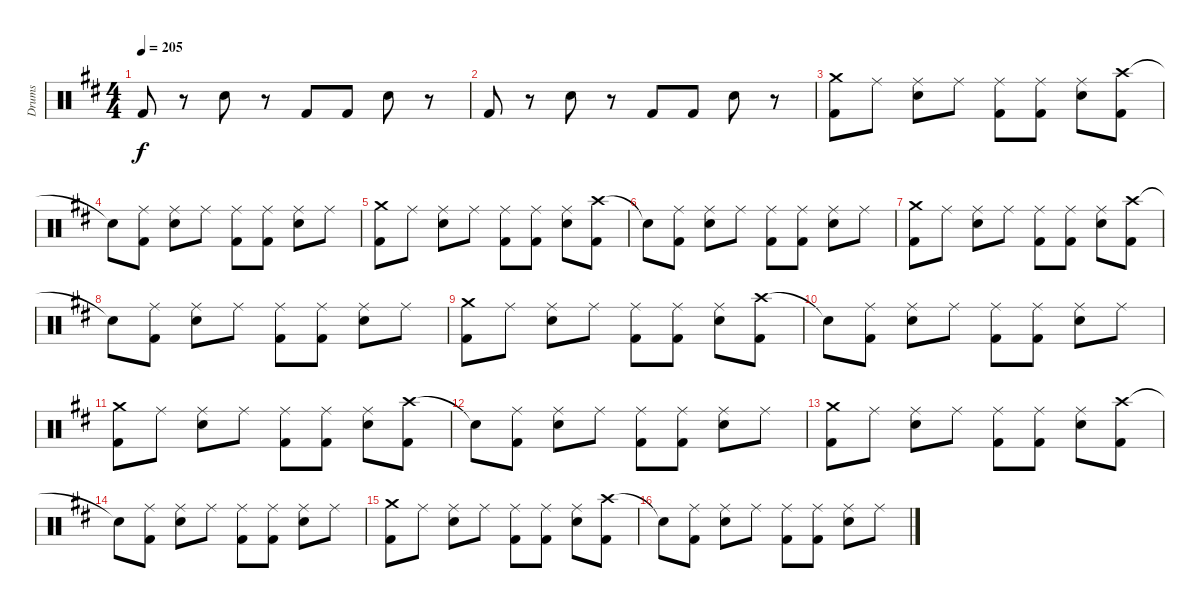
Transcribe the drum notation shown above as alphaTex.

\track ("Drums" "Drums") {instrument percussion}
\staff {score}
\articulation defaults
\ts (4 4)
\tempo 205
\clef neutral
\ks d "Kick (hit) 2".8{dy f}
r.8 "Snare (hit) 2".8 r.8 "Kick (hit) 2".8 "Kick (hit) 2".8 "Snare (hit) 2".8 r.8 |
"Kick (hit) 2".8 r.8 "Snare (hit) 2".8 r.8 "Kick (hit) 2".8 "Kick (hit) 2".8 "Snare (hit) 2".8 r.8 |
("Crash medium (hit)" "Kick (hit) 2").8 "Ride (middle)".8 ("Ride (middle)" "Snare (hit) 2").8 "Ride (middle)".8 ("Ride (middle)" "Kick (hit) 2").8 ("Ride (middle)" "Kick (hit) 2").8 ("Ride (middle)" "Snare (hit) 2").8 ("Crash high (hit)" "Kick (hit) 2").8 |
"Snare (hit)"{t}.8 ("Ride (middle)" "Kick (hit) 2").8 ("Ride (middle)" "Snare (hit) 2").8 "Ride (middle)".8 ("Ride (middle)" "Kick (hit) 2").8 ("Ride (middle)" "Kick (hit) 2").8 ("Ride (middle)" "Snare (hit) 2").8 "Ride (middle)".8 |
("Crash medium (hit)" "Kick (hit) 2").8 "Ride (middle)".8 ("Ride (middle)" "Snare (hit) 2").8 "Ride (middle)".8 ("Ride (middle)" "Kick (hit) 2").8 ("Ride (middle)" "Kick (hit) 2").8 ("Ride (middle)" "Snare (hit) 2").8 ("Crash high (hit)" "Kick (hit) 2").8 |
"Snare (hit)"{t}.8 ("Ride (middle)" "Kick (hit) 2").8 ("Ride (middle)" "Snare (hit) 2").8 "Ride (middle)".8 ("Ride (middle)" "Kick (hit) 2").8 ("Ride (middle)" "Kick (hit) 2").8 ("Ride (middle)" "Snare (hit) 2").8 "Ride (middle)".8 |
("Crash medium (hit)" "Kick (hit) 2").8 "Ride (middle)".8 ("Ride (middle)" "Snare (hit) 2").8 "Ride (middle)".8 ("Ride (middle)" "Kick (hit) 2").8 ("Ride (middle)" "Kick (hit) 2").8 ("Ride (middle)" "Snare (hit) 2").8 ("Crash high (hit)" "Kick (hit) 2").8 |
"Snare (hit)"{t}.8 ("Ride (middle)" "Kick (hit) 2").8 ("Ride (middle)" "Snare (hit) 2").8 "Ride (middle)".8 ("Ride (middle)" "Kick (hit) 2").8 ("Ride (middle)" "Kick (hit) 2").8 ("Ride (middle)" "Snare (hit) 2").8 "Ride (middle)".8 |
("Crash medium (hit)" "Kick (hit) 2").8 "Ride (middle)".8 ("Ride (middle)" "Snare (hit) 2").8 "Ride (middle)".8 ("Ride (middle)" "Kick (hit) 2").8 ("Ride (middle)" "Kick (hit) 2").8 ("Ride (middle)" "Snare (hit) 2").8 ("Crash high (hit)" "Kick (hit) 2").8 |
"Snare (hit)"{t}.8 ("Ride (middle)" "Kick (hit) 2").8 ("Ride (middle)" "Snare (hit) 2").8 "Ride (middle)".8 ("Ride (middle)" "Kick (hit) 2").8 ("Ride (middle)" "Kick (hit) 2").8 ("Ride (middle)" "Snare (hit) 2").8 "Ride (middle)".8 |
("Crash medium (hit)" "Kick (hit) 2").8 "Ride (middle)".8 ("Ride (middle)" "Snare (hit) 2").8 "Ride (middle)".8 ("Ride (middle)" "Kick (hit) 2").8 ("Ride (middle)" "Kick (hit) 2").8 ("Ride (middle)" "Snare (hit) 2").8 ("Crash high (hit)" "Kick (hit) 2").8 |
"Snare (hit)"{t}.8 ("Ride (middle)" "Kick (hit) 2").8 ("Ride (middle)" "Snare (hit) 2").8 "Ride (middle)".8 ("Ride (middle)" "Kick (hit) 2").8 ("Ride (middle)" "Kick (hit) 2").8 ("Ride (middle)" "Snare (hit) 2").8 "Ride (middle)".8 |
("Crash medium (hit)" "Kick (hit) 2").8 "Ride (middle)".8 ("Ride (middle)" "Snare (hit) 2").8 "Ride (middle)".8 ("Ride (middle)" "Kick (hit) 2").8 ("Ride (middle)" "Kick (hit) 2").8 ("Ride (middle)" "Snare (hit) 2").8 ("Crash high (hit)" "Kick (hit) 2").8 |
"Snare (hit)"{t}.8 ("Ride (middle)" "Kick (hit) 2").8 ("Ride (middle)" "Snare (hit) 2").8 "Ride (middle)".8 ("Ride (middle)" "Kick (hit) 2").8 ("Ride (middle)" "Kick (hit) 2").8 ("Ride (middle)" "Snare (hit) 2").8 "Ride (middle)".8 |
("Crash medium (hit)" "Kick (hit) 2").8 "Ride (middle)".8 ("Ride (middle)" "Snare (hit) 2").8 "Ride (middle)".8 ("Ride (middle)" "Kick (hit) 2").8 ("Ride (middle)" "Kick (hit) 2").8 ("Ride (middle)" "Snare (hit) 2").8 ("Crash high (hit)" "Kick (hit) 2").8 |
"Snare (hit)"{t}.8 ("Ride (middle)" "Kick (hit) 2").8 ("Ride (middle)" "Snare (hit) 2").8 "Ride (middle)".8 ("Ride (middle)" "Kick (hit) 2").8 ("Ride (middle)" "Kick (hit) 2").8 ("Ride (middle)" "Snare (hit) 2").8 "Ride (middle)".8
